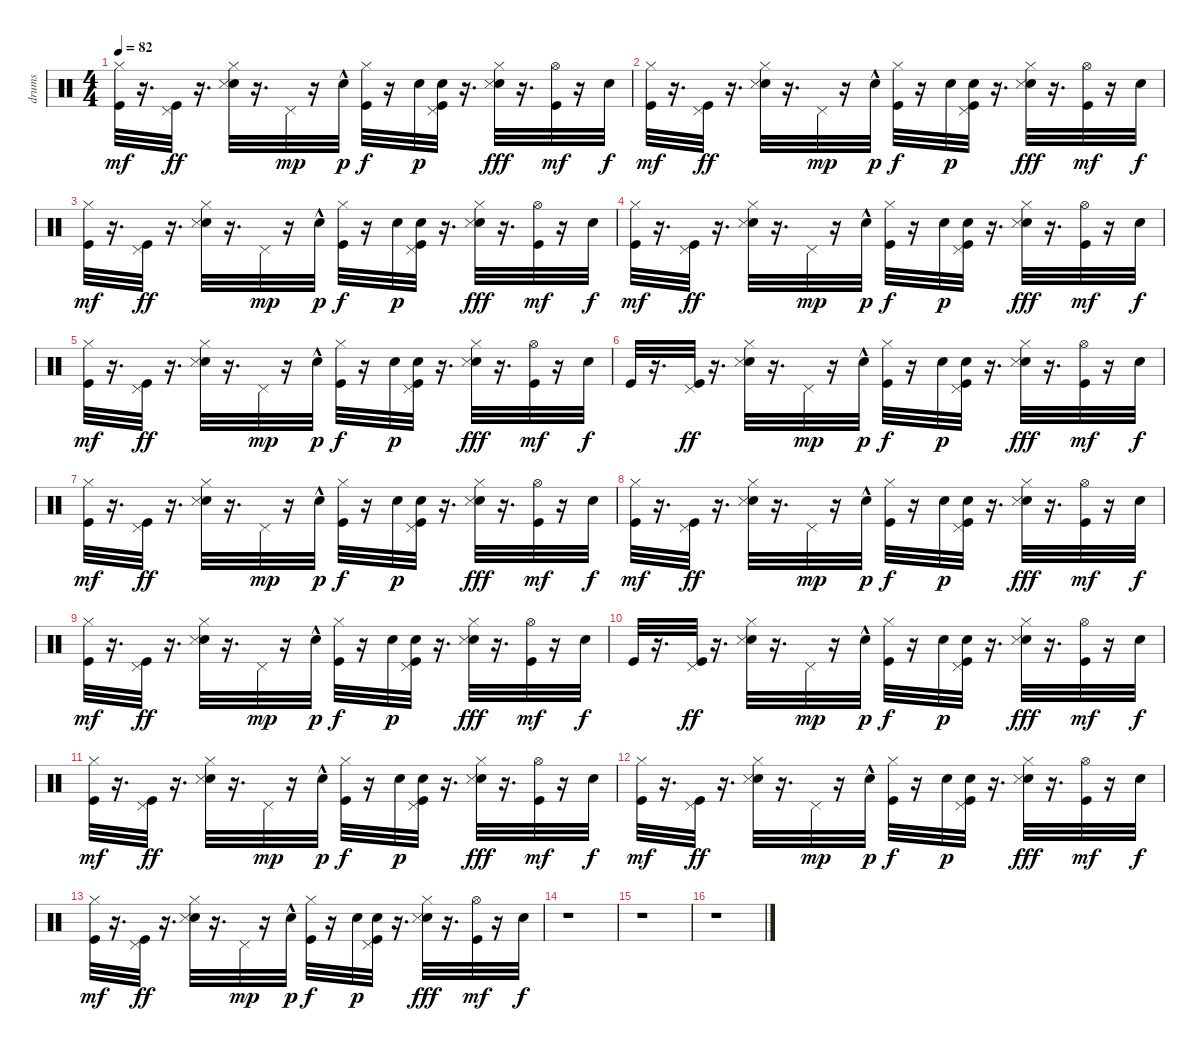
\track ("drums" "drums") {instrument percussion}
\staff {score}
\articulation defaults
\ts (4 4)
\tempo 82
\clef neutral
\ks c
("Hi-Hat (closed)" "Kick (hit)").32{dy mf} r.16{d} ("Pedal Hi-Hat (hit)" "Kick (hit)").32{dy ff} r.16{d} ("Electric Snare (hit)" "Hi-Hat (closed)" "Snare (side stick) 3").32 r.16{d} "Pedal Hi-Hat (hit)".32{dy mp} r.16 "Electric Snare (hit)"{hac}.32{dy p} ("Hi-Hat (closed)" "Kick (hit)").32{dy f} r.16 "Electric Snare (hit)".32{dy p} ("Electric Snare (hit)" "Pedal Hi-Hat (hit)" "Kick (hit)").32 r.16{d} ("Electric Snare (hit)" "Hi-Hat (closed)" "Snare (side stick) 3").32{dy fff} r.16{d} ("Hi-Hat (open)" "Kick (hit)").32{dy mf} r.16 "Electric Snare (hit)".32{dy f} |
("Hi-Hat (closed)" "Kick (hit)").32{dy mf} r.16{d} ("Pedal Hi-Hat (hit)" "Kick (hit)").32{dy ff} r.16{d} ("Electric Snare (hit)" "Hi-Hat (closed)" "Snare (side stick) 3").32 r.16{d} "Pedal Hi-Hat (hit)".32{dy mp} r.16 "Electric Snare (hit)"{hac}.32{dy p} ("Hi-Hat (closed)" "Kick (hit)").32{dy f} r.16 "Electric Snare (hit)".32{dy p} ("Electric Snare (hit)" "Pedal Hi-Hat (hit)" "Kick (hit)").32 r.16{d} ("Electric Snare (hit)" "Hi-Hat (closed)" "Snare (side stick) 3").32{dy fff} r.16{d} ("Hi-Hat (open)" "Kick (hit)").32{dy mf} r.16 "Electric Snare (hit)".32{dy f} |
("Hi-Hat (closed)" "Kick (hit)").32{dy mf} r.16{d} ("Pedal Hi-Hat (hit)" "Kick (hit)").32{dy ff} r.16{d} ("Electric Snare (hit)" "Hi-Hat (closed)" "Snare (side stick) 3").32 r.16{d} "Pedal Hi-Hat (hit)".32{dy mp} r.16 "Electric Snare (hit)"{hac}.32{dy p} ("Hi-Hat (closed)" "Kick (hit)").32{dy f} r.16 "Electric Snare (hit)".32{dy p} ("Electric Snare (hit)" "Pedal Hi-Hat (hit)" "Kick (hit)").32 r.16{d} ("Electric Snare (hit)" "Hi-Hat (closed)" "Snare (side stick) 3").32{dy fff} r.16{d} ("Hi-Hat (open)" "Kick (hit)").32{dy mf} r.16 "Electric Snare (hit)".32{dy f} |
("Hi-Hat (closed)" "Kick (hit)").32{dy mf} r.16{d} ("Pedal Hi-Hat (hit)" "Kick (hit)").32{dy ff} r.16{d} ("Electric Snare (hit)" "Hi-Hat (closed)" "Snare (side stick) 3").32 r.16{d} "Pedal Hi-Hat (hit)".32{dy mp} r.16 "Electric Snare (hit)"{hac}.32{dy p} ("Hi-Hat (closed)" "Kick (hit)").32{dy f} r.16 "Electric Snare (hit)".32{dy p} ("Electric Snare (hit)" "Pedal Hi-Hat (hit)" "Kick (hit)").32 r.16{d} ("Electric Snare (hit)" "Hi-Hat (closed)" "Snare (side stick) 3").32{dy fff} r.16{d} ("Hi-Hat (open)" "Kick (hit)").32{dy mf} r.16 "Electric Snare (hit)".32{dy f} |
("Hi-Hat (closed)" "Kick (hit)").32{dy mf} r.16{d} ("Pedal Hi-Hat (hit)" "Kick (hit)").32{dy ff} r.16{d} ("Electric Snare (hit)" "Hi-Hat (closed)" "Snare (side stick) 3").32 r.16{d} "Pedal Hi-Hat (hit)".32{dy mp} r.16 "Electric Snare (hit)"{hac}.32{dy p} ("Hi-Hat (closed)" "Kick (hit)").32{dy f} r.16 "Electric Snare (hit)".32{dy p} ("Electric Snare (hit)" "Pedal Hi-Hat (hit)" "Kick (hit)").32 r.16{d} ("Electric Snare (hit)" "Hi-Hat (closed)" "Snare (side stick) 3").32{dy fff} r.16{d} ("Hi-Hat (open)" "Kick (hit)").32{dy mf} r.16 "Electric Snare (hit)".32{dy f} |
"Kick (hit)".32 r.16{d} ("Pedal Hi-Hat (hit)" "Kick (hit)").32{dy ff} r.16{d} ("Electric Snare (hit)" "Hi-Hat (closed)" "Snare (side stick) 3").32 r.16{d} "Pedal Hi-Hat (hit)".32{dy mp} r.16 "Electric Snare (hit)"{hac}.32{dy p} ("Hi-Hat (closed)" "Kick (hit)").32{dy f} r.16 "Electric Snare (hit)".32{dy p} ("Electric Snare (hit)" "Pedal Hi-Hat (hit)" "Kick (hit)").32 r.16{d} ("Electric Snare (hit)" "Hi-Hat (closed)" "Snare (side stick) 3").32{dy fff} r.16{d} ("Hi-Hat (open)" "Kick (hit)").32{dy mf} r.16 "Electric Snare (hit)".32{dy f} |
("Hi-Hat (closed)" "Kick (hit)").32{dy mf} r.16{d} ("Pedal Hi-Hat (hit)" "Kick (hit)").32{dy ff} r.16{d} ("Electric Snare (hit)" "Hi-Hat (closed)" "Snare (side stick) 3").32 r.16{d} "Pedal Hi-Hat (hit)".32{dy mp} r.16 "Electric Snare (hit)"{hac}.32{dy p} ("Hi-Hat (closed)" "Kick (hit)").32{dy f} r.16 "Electric Snare (hit)".32{dy p} ("Electric Snare (hit)" "Pedal Hi-Hat (hit)" "Kick (hit)").32 r.16{d} ("Electric Snare (hit)" "Hi-Hat (closed)" "Snare (side stick) 3").32{dy fff} r.16{d} ("Hi-Hat (open)" "Kick (hit)").32{dy mf} r.16 "Electric Snare (hit)".32{dy f} |
("Hi-Hat (closed)" "Kick (hit)").32{dy mf} r.16{d} ("Pedal Hi-Hat (hit)" "Kick (hit)").32{dy ff} r.16{d} ("Electric Snare (hit)" "Hi-Hat (closed)" "Snare (side stick) 3").32 r.16{d} "Pedal Hi-Hat (hit)".32{dy mp} r.16 "Electric Snare (hit)"{hac}.32{dy p} ("Hi-Hat (closed)" "Kick (hit)").32{dy f} r.16 "Electric Snare (hit)".32{dy p} ("Electric Snare (hit)" "Pedal Hi-Hat (hit)" "Kick (hit)").32 r.16{d} ("Electric Snare (hit)" "Hi-Hat (closed)" "Snare (side stick) 3").32{dy fff} r.16{d} ("Hi-Hat (open)" "Kick (hit)").32{dy mf} r.16 "Electric Snare (hit)".32{dy f} |
("Hi-Hat (closed)" "Kick (hit)").32{dy mf} r.16{d} ("Pedal Hi-Hat (hit)" "Kick (hit)").32{dy ff} r.16{d} ("Electric Snare (hit)" "Hi-Hat (closed)" "Snare (side stick) 3").32 r.16{d} "Pedal Hi-Hat (hit)".32{dy mp} r.16 "Electric Snare (hit)"{hac}.32{dy p} ("Hi-Hat (closed)" "Kick (hit)").32{dy f} r.16 "Electric Snare (hit)".32{dy p} ("Electric Snare (hit)" "Pedal Hi-Hat (hit)" "Kick (hit)").32 r.16{d} ("Electric Snare (hit)" "Hi-Hat (closed)" "Snare (side stick) 3").32{dy fff} r.16{d} ("Hi-Hat (open)" "Kick (hit)").32{dy mf} r.16 "Electric Snare (hit)".32{dy f} |
"Kick (hit)".32 r.16{d} ("Pedal Hi-Hat (hit)" "Kick (hit)").32{dy ff} r.16{d} ("Electric Snare (hit)" "Hi-Hat (closed)" "Snare (side stick) 3").32 r.16{d} "Pedal Hi-Hat (hit)".32{dy mp} r.16 "Electric Snare (hit)"{hac}.32{dy p} ("Hi-Hat (closed)" "Kick (hit)").32{dy f} r.16 "Electric Snare (hit)".32{dy p} ("Electric Snare (hit)" "Pedal Hi-Hat (hit)" "Kick (hit)").32 r.16{d} ("Electric Snare (hit)" "Hi-Hat (closed)" "Snare (side stick) 3").32{dy fff} r.16{d} ("Hi-Hat (open)" "Kick (hit)").32{dy mf} r.16 "Electric Snare (hit)".32{dy f} |
("Hi-Hat (closed)" "Kick (hit)").32{dy mf} r.16{d} ("Pedal Hi-Hat (hit)" "Kick (hit)").32{dy ff} r.16{d} ("Electric Snare (hit)" "Hi-Hat (closed)" "Snare (side stick) 3").32 r.16{d} "Pedal Hi-Hat (hit)".32{dy mp} r.16 "Electric Snare (hit)"{hac}.32{dy p} ("Hi-Hat (closed)" "Kick (hit)").32{dy f} r.16 "Electric Snare (hit)".32{dy p} ("Electric Snare (hit)" "Pedal Hi-Hat (hit)" "Kick (hit)").32 r.16{d} ("Electric Snare (hit)" "Hi-Hat (closed)" "Snare (side stick) 3").32{dy fff} r.16{d} ("Hi-Hat (open)" "Kick (hit)").32{dy mf} r.16 "Electric Snare (hit)".32{dy f} |
("Hi-Hat (closed)" "Kick (hit)").32{dy mf} r.16{d} ("Pedal Hi-Hat (hit)" "Kick (hit)").32{dy ff} r.16{d} ("Electric Snare (hit)" "Hi-Hat (closed)" "Snare (side stick) 3").32 r.16{d} "Pedal Hi-Hat (hit)".32{dy mp} r.16 "Electric Snare (hit)"{hac}.32{dy p} ("Hi-Hat (closed)" "Kick (hit)").32{dy f} r.16 "Electric Snare (hit)".32{dy p} ("Electric Snare (hit)" "Pedal Hi-Hat (hit)" "Kick (hit)").32 r.16{d} ("Electric Snare (hit)" "Hi-Hat (closed)" "Snare (side stick) 3").32{dy fff} r.16{d} ("Hi-Hat (open)" "Kick (hit)").32{dy mf} r.16 "Electric Snare (hit)".32{dy f} |
("Hi-Hat (closed)" "Kick (hit)").32{dy mf} r.16{d} ("Pedal Hi-Hat (hit)" "Kick (hit)").32{dy ff} r.16{d} ("Electric Snare (hit)" "Hi-Hat (closed)" "Snare (side stick) 3").32 r.16{d} "Pedal Hi-Hat (hit)".32{dy mp} r.16 "Electric Snare (hit)"{hac}.32{dy p} ("Hi-Hat (closed)" "Kick (hit)").32{dy f} r.16 "Electric Snare (hit)".32{dy p} ("Electric Snare (hit)" "Pedal Hi-Hat (hit)" "Kick (hit)").32 r.16{d} ("Electric Snare (hit)" "Hi-Hat (closed)" "Snare (side stick) 3").32{dy fff} r.16{d} ("Hi-Hat (open)" "Kick (hit)").32{dy mf} r.16 "Electric Snare (hit)".32{dy f} |
r.1 |
r.1 |
r.1
